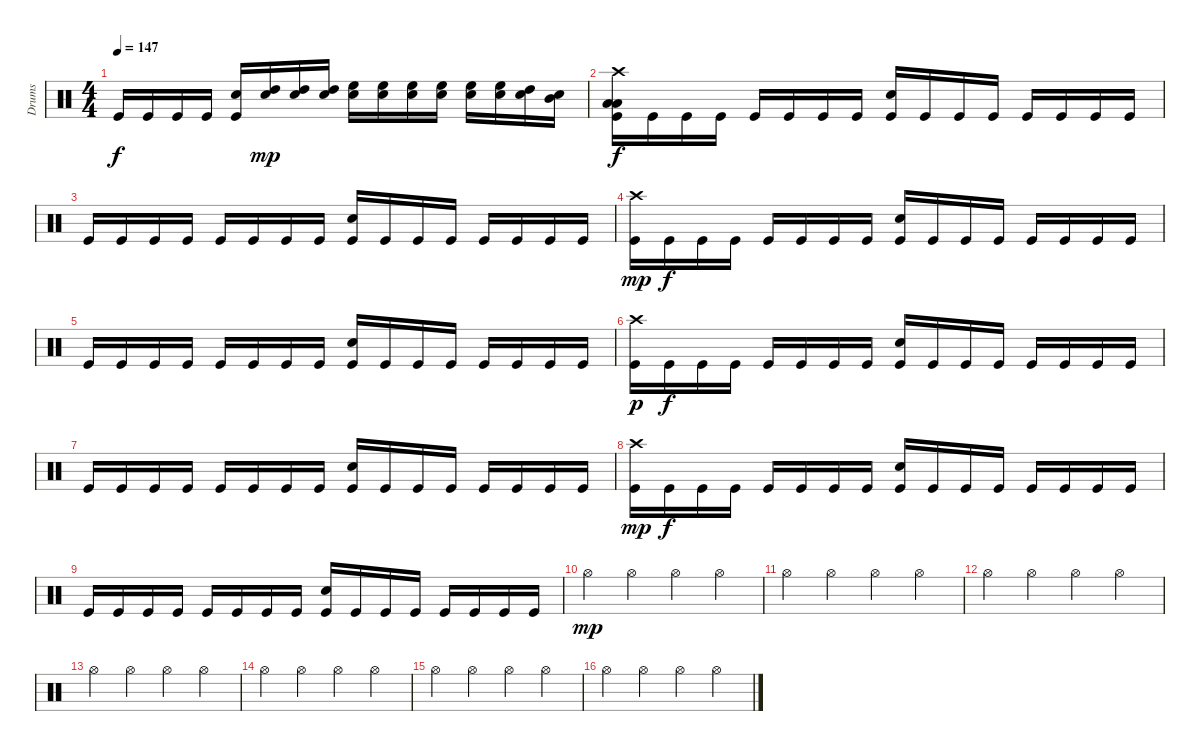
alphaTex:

\track ("Drums" "Drums") {instrument percussion}
\staff {score}
\articulation defaults
\ts (4 4)
\tempo 147
\clef neutral
\ks c "Kick (hit)".16{dy f} "Kick (hit)".16 "Kick (hit)".16 "Kick (hit)".16
("Snare (hit) 2" "Kick (hit)").16 ("Snare (hit) 2" "High Tom (hit)").16{dy mp} ("Snare (hit) 2" "High Tom (hit)").16 ("Snare (hit) 2" "High Tom (hit)").16 ("Electric Snare (hit)" "High Floor Tom (hit)").16 ("Electric Snare (hit)" "High Floor Tom (hit)").16 ("Electric Snare (hit)" "High Floor Tom (hit)").16 ("Electric Snare (hit)" "High Floor Tom (hit)").16 ("Electric Snare (hit)" "High Floor Tom (hit)").16 ("Electric Snare (hit)" "High Floor Tom (hit)").16 ("Snare (hit) 2" "High Tom (hit)").16 ("Snare (hit) 2" "Mid Tom (hit)").16 |
("Low Tom (hit)" "Crash high (hit)" "Low Tom (hit)" "Kick (hit)").16{dy f} "Kick (hit)".16 "Kick (hit)".16 "Kick (hit)".16 "Kick (hit)".16 "Kick (hit)".16 "Kick (hit)".16 "Kick (hit)".16 ("Electric Snare (hit)" "Kick (hit)").16 "Kick (hit)".16 "Kick (hit)".16 "Kick (hit)".16 "Kick (hit)".16 "Kick (hit)".16 "Kick (hit)".16 "Kick (hit)".16 |
"Kick (hit)".16 "Kick (hit)".16 "Kick (hit)".16 "Kick (hit)".16 "Kick (hit)".16 "Kick (hit)".16 "Kick (hit)".16 "Kick (hit)".16 ("Electric Snare (hit)" "Kick (hit)").16 "Kick (hit)".16 "Kick (hit)".16 "Kick (hit)".16 "Kick (hit)".16 "Kick (hit)".16 "Kick (hit)".16 "Kick (hit)".16 |
("Crash high (hit)" "Kick (hit)").16{dy mp} "Kick (hit)".16{dy f} "Kick (hit)".16 "Kick (hit)".16 "Kick (hit)".16 "Kick (hit)".16 "Kick (hit)".16 "Kick (hit)".16 ("Electric Snare (hit)" "Kick (hit)").16 "Kick (hit)".16 "Kick (hit)".16 "Kick (hit)".16 "Kick (hit)".16 "Kick (hit)".16 "Kick (hit)".16 "Kick (hit)".16 |
"Kick (hit)".16 "Kick (hit)".16 "Kick (hit)".16 "Kick (hit)".16 "Kick (hit)".16 "Kick (hit)".16 "Kick (hit)".16 "Kick (hit)".16 ("Electric Snare (hit)" "Kick (hit)").16 "Kick (hit)".16 "Kick (hit)".16 "Kick (hit)".16 "Kick (hit)".16 "Kick (hit)".16 "Kick (hit)".16 "Kick (hit)".16 |
("Crash high (hit)" "Kick (hit)").16{dy p} "Kick (hit)".16{dy f} "Kick (hit)".16 "Kick (hit)".16 "Kick (hit)".16 "Kick (hit)".16 "Kick (hit)".16 "Kick (hit)".16 ("Electric Snare (hit)" "Kick (hit)").16 "Kick (hit)".16 "Kick (hit)".16 "Kick (hit)".16 "Kick (hit)".16 "Kick (hit)".16 "Kick (hit)".16 "Kick (hit)".16 |
"Kick (hit)".16 "Kick (hit)".16 "Kick (hit)".16 "Kick (hit)".16 "Kick (hit)".16 "Kick (hit)".16 "Kick (hit)".16 "Kick (hit)".16 ("Electric Snare (hit)" "Kick (hit)").16 "Kick (hit)".16 "Kick (hit)".16 "Kick (hit)".16 "Kick (hit)".16 "Kick (hit)".16 "Kick (hit)".16 "Kick (hit)".16 |
("Crash high (hit)" "Kick (hit)").16{dy mp} "Kick (hit)".16{dy f} "Kick (hit)".16 "Kick (hit)".16 "Kick (hit)".16 "Kick (hit)".16 "Kick (hit)".16 "Kick (hit)".16 ("Electric Snare (hit)" "Kick (hit)").16 "Kick (hit)".16 "Kick (hit)".16 "Kick (hit)".16 "Kick (hit)".16 "Kick (hit)".16 "Kick (hit)".16 "Kick (hit)".16 |
"Kick (hit)".16 "Kick (hit)".16 "Kick (hit)".16 "Kick (hit)".16 "Kick (hit)".16 "Kick (hit)".16 "Kick (hit)".16 "Kick (hit)".16 ("Electric Snare (hit)" "Kick (hit)").16 "Kick (hit)".16 "Kick (hit)".16 "Kick (hit)".16 "Kick (hit)".16 "Kick (hit)".16 "Kick (hit)".16 "Kick (hit)".16 |
"Hi-Hat (open)".4{dy mp} "Hi-Hat (open)".4 "Hi-Hat (open)".4 "Hi-Hat (open)".4 |
"Hi-Hat (open)".4 "Hi-Hat (open)".4 "Hi-Hat (open)".4 "Hi-Hat (open)".4 |
"Hi-Hat (open)".4 "Hi-Hat (open)".4 "Hi-Hat (open)".4 "Hi-Hat (open)".4 |
"Hi-Hat (open)".4 "Hi-Hat (open)".4 "Hi-Hat (open)".4 "Hi-Hat (open)".4 |
"Hi-Hat (open)".4 "Hi-Hat (open)".4 "Hi-Hat (open)".4 "Hi-Hat (open)".4 |
"Hi-Hat (open)".4 "Hi-Hat (open)".4 "Hi-Hat (open)".4 "Hi-Hat (open)".4 |
"Hi-Hat (open)".4 "Hi-Hat (open)".4 "Hi-Hat (open)".4 "Hi-Hat (open)".4
